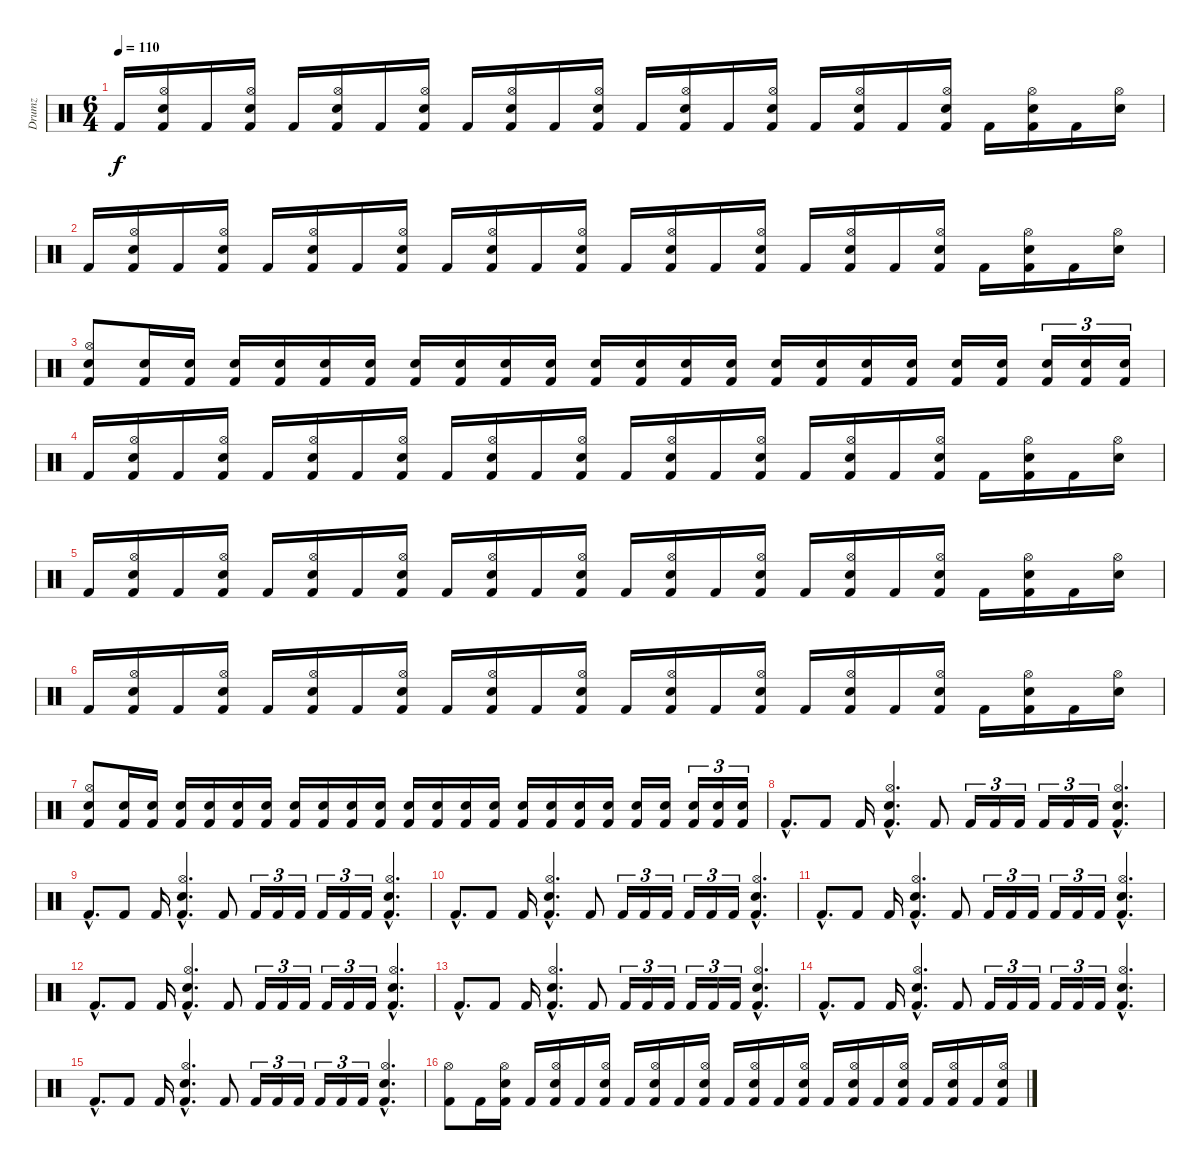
\track ("Drumz" "Drumz") {instrument percussion}
\staff {score}
\articulation defaults
\ts (6 4)
\tempo 110
\clef neutral
\ks c "Kick (hit) 2".16{dy f}
("Hi-Hat (open)" "Snare (hit) 2" "Kick (hit) 2").16 "Kick (hit) 2".16 ("Hi-Hat (open)" "Snare (hit) 2" "Kick (hit) 2").16 "Kick (hit) 2".16 ("Hi-Hat (open)" "Snare (hit) 2" "Kick (hit) 2").16 "Kick (hit) 2".16 ("Hi-Hat (open)" "Snare (hit) 2" "Kick (hit) 2").16 "Kick (hit) 2".16 ("Hi-Hat (open)" "Snare (hit) 2" "Kick (hit) 2").16 "Kick (hit) 2".16 ("Hi-Hat (open)" "Snare (hit) 2" "Kick (hit) 2").16 "Kick (hit) 2".16 ("Hi-Hat (open)" "Snare (hit) 2" "Kick (hit) 2").16 "Kick (hit) 2".16 ("Hi-Hat (open)" "Snare (hit) 2" "Kick (hit) 2").16 "Kick (hit) 2".16 ("Hi-Hat (open)" "Snare (hit) 2" "Kick (hit) 2").16 "Kick (hit) 2".16 ("Hi-Hat (open)" "Snare (hit) 2" "Kick (hit) 2").16 "Kick (hit) 2".16 ("Hi-Hat (open)" "Snare (hit) 2" "Kick (hit) 2").16 "Kick (hit) 2".16 ("Hi-Hat (open)" "Snare (hit) 2").16 |
"Kick (hit) 2".16 ("Hi-Hat (open)" "Snare (hit) 2" "Kick (hit) 2").16 "Kick (hit) 2".16 ("Hi-Hat (open)" "Snare (hit) 2" "Kick (hit) 2").16 "Kick (hit) 2".16 ("Hi-Hat (open)" "Snare (hit) 2" "Kick (hit) 2").16 "Kick (hit) 2".16 ("Hi-Hat (open)" "Snare (hit) 2" "Kick (hit) 2").16 "Kick (hit) 2".16 ("Hi-Hat (open)" "Snare (hit) 2" "Kick (hit) 2").16 "Kick (hit) 2".16 ("Hi-Hat (open)" "Snare (hit) 2" "Kick (hit) 2").16 "Kick (hit) 2".16 ("Hi-Hat (open)" "Snare (hit) 2" "Kick (hit) 2").16 "Kick (hit) 2".16 ("Hi-Hat (open)" "Snare (hit) 2" "Kick (hit) 2").16 "Kick (hit) 2".16 ("Hi-Hat (open)" "Snare (hit) 2" "Kick (hit) 2").16 "Kick (hit) 2".16 ("Hi-Hat (open)" "Snare (hit) 2" "Kick (hit) 2").16 "Kick (hit) 2".16 ("Hi-Hat (open)" "Snare (hit) 2" "Kick (hit) 2").16 "Kick (hit) 2".16 ("Hi-Hat (open)" "Snare (hit) 2").16 |
("Hi-Hat (open)" "Snare (hit) 2" "Kick (hit) 2").8 ("Snare (hit) 2" "Kick (hit) 2").16 ("Snare (hit) 2" "Kick (hit) 2").16 ("Snare (hit) 2" "Kick (hit) 2").16 ("Snare (hit) 2" "Kick (hit) 2").16 ("Snare (hit) 2" "Kick (hit) 2").16 ("Snare (hit) 2" "Kick (hit) 2").16 ("Snare (hit) 2" "Kick (hit) 2").16 ("Snare (hit) 2" "Kick (hit) 2").16 ("Snare (hit) 2" "Kick (hit) 2").16 ("Snare (hit) 2" "Kick (hit) 2").16 ("Snare (hit) 2" "Kick (hit) 2").16 ("Snare (hit) 2" "Kick (hit) 2").16 ("Snare (hit) 2" "Kick (hit) 2").16 ("Snare (hit) 2" "Kick (hit) 2").16 ("Snare (hit) 2" "Kick (hit) 2").16 ("Snare (hit) 2" "Kick (hit) 2").16 ("Snare (hit) 2" "Kick (hit) 2").16 ("Snare (hit) 2" "Kick (hit) 2").16 ("Snare (hit) 2" "Kick (hit) 2").16 ("Snare (hit) 2" "Kick (hit) 2").16 ("Snare (hit) 2" "Kick (hit) 2").16{tu (3 2)} ("Snare (hit) 2" "Kick (hit) 2").16{tu (3 2)} ("Snare (hit) 2" "Kick (hit) 2").16{tu (3 2)} |
"Kick (hit) 2".16 ("Hi-Hat (open)" "Snare (hit) 2" "Kick (hit) 2").16 "Kick (hit) 2".16 ("Hi-Hat (open)" "Snare (hit) 2" "Kick (hit) 2").16 "Kick (hit) 2".16 ("Hi-Hat (open)" "Snare (hit) 2" "Kick (hit) 2").16 "Kick (hit) 2".16 ("Hi-Hat (open)" "Snare (hit) 2" "Kick (hit) 2").16 "Kick (hit) 2".16 ("Hi-Hat (open)" "Snare (hit) 2" "Kick (hit) 2").16 "Kick (hit) 2".16 ("Hi-Hat (open)" "Snare (hit) 2" "Kick (hit) 2").16 "Kick (hit) 2".16 ("Hi-Hat (open)" "Snare (hit) 2" "Kick (hit) 2").16 "Kick (hit) 2".16 ("Hi-Hat (open)" "Snare (hit) 2" "Kick (hit) 2").16 "Kick (hit) 2".16 ("Hi-Hat (open)" "Snare (hit) 2" "Kick (hit) 2").16 "Kick (hit) 2".16 ("Hi-Hat (open)" "Snare (hit) 2" "Kick (hit) 2").16 "Kick (hit) 2".16 ("Hi-Hat (open)" "Snare (hit) 2" "Kick (hit) 2").16 "Kick (hit) 2".16 ("Hi-Hat (open)" "Snare (hit) 2").16 |
"Kick (hit) 2".16 ("Hi-Hat (open)" "Snare (hit) 2" "Kick (hit) 2").16 "Kick (hit) 2".16 ("Hi-Hat (open)" "Snare (hit) 2" "Kick (hit) 2").16 "Kick (hit) 2".16 ("Hi-Hat (open)" "Snare (hit) 2" "Kick (hit) 2").16 "Kick (hit) 2".16 ("Hi-Hat (open)" "Snare (hit) 2" "Kick (hit) 2").16 "Kick (hit) 2".16 ("Hi-Hat (open)" "Snare (hit) 2" "Kick (hit) 2").16 "Kick (hit) 2".16 ("Hi-Hat (open)" "Snare (hit) 2" "Kick (hit) 2").16 "Kick (hit) 2".16 ("Hi-Hat (open)" "Snare (hit) 2" "Kick (hit) 2").16 "Kick (hit) 2".16 ("Hi-Hat (open)" "Snare (hit) 2" "Kick (hit) 2").16 "Kick (hit) 2".16 ("Hi-Hat (open)" "Snare (hit) 2" "Kick (hit) 2").16 "Kick (hit) 2".16 ("Hi-Hat (open)" "Snare (hit) 2" "Kick (hit) 2").16 "Kick (hit) 2".16 ("Hi-Hat (open)" "Snare (hit) 2" "Kick (hit) 2").16 "Kick (hit) 2".16 ("Hi-Hat (open)" "Snare (hit) 2").16 |
"Kick (hit) 2".16 ("Hi-Hat (open)" "Snare (hit) 2" "Kick (hit) 2").16 "Kick (hit) 2".16 ("Hi-Hat (open)" "Snare (hit) 2" "Kick (hit) 2").16 "Kick (hit) 2".16 ("Hi-Hat (open)" "Snare (hit) 2" "Kick (hit) 2").16 "Kick (hit) 2".16 ("Hi-Hat (open)" "Snare (hit) 2" "Kick (hit) 2").16 "Kick (hit) 2".16 ("Hi-Hat (open)" "Snare (hit) 2" "Kick (hit) 2").16 "Kick (hit) 2".16 ("Hi-Hat (open)" "Snare (hit) 2" "Kick (hit) 2").16 "Kick (hit) 2".16 ("Hi-Hat (open)" "Snare (hit) 2" "Kick (hit) 2").16 "Kick (hit) 2".16 ("Hi-Hat (open)" "Snare (hit) 2" "Kick (hit) 2").16 "Kick (hit) 2".16 ("Hi-Hat (open)" "Snare (hit) 2" "Kick (hit) 2").16 "Kick (hit) 2".16 ("Hi-Hat (open)" "Snare (hit) 2" "Kick (hit) 2").16 "Kick (hit) 2".16 ("Hi-Hat (open)" "Snare (hit) 2" "Kick (hit) 2").16 "Kick (hit) 2".16 ("Hi-Hat (open)" "Snare (hit) 2").16 |
("Hi-Hat (open)" "Snare (hit) 2" "Kick (hit) 2").8 ("Snare (hit) 2" "Kick (hit) 2").16 ("Snare (hit) 2" "Kick (hit) 2").16 ("Snare (hit) 2" "Kick (hit) 2").16 ("Snare (hit) 2" "Kick (hit) 2").16 ("Snare (hit) 2" "Kick (hit) 2").16 ("Snare (hit) 2" "Kick (hit) 2").16 ("Snare (hit) 2" "Kick (hit) 2").16 ("Snare (hit) 2" "Kick (hit) 2").16 ("Snare (hit) 2" "Kick (hit) 2").16 ("Snare (hit) 2" "Kick (hit) 2").16 ("Snare (hit) 2" "Kick (hit) 2").16 ("Snare (hit) 2" "Kick (hit) 2").16 ("Snare (hit) 2" "Kick (hit) 2").16 ("Snare (hit) 2" "Kick (hit) 2").16 ("Snare (hit) 2" "Kick (hit) 2").16 ("Snare (hit) 2" "Kick (hit) 2").16 ("Snare (hit) 2" "Kick (hit) 2").16 ("Snare (hit) 2" "Kick (hit) 2").16 ("Snare (hit) 2" "Kick (hit) 2").16 ("Snare (hit) 2" "Kick (hit) 2").16 ("Snare (hit) 2" "Kick (hit) 2").16{tu (3 2)} ("Snare (hit) 2" "Kick (hit) 2").16{tu (3 2)} ("Snare (hit) 2" "Kick (hit) 2").16{tu (3 2)} |
"Kick (hit) 2"{hac}.8{d} "Kick (hit) 2".8 "Kick (hit) 2".16 ("Hi-Hat (open)"{hac} "Snare (hit) 2"{hac} "Kick (hit) 2"{hac}).4{d} "Kick (hit) 2".8 "Kick (hit) 2".16{tu (3 2)} "Kick (hit) 2".16{tu (3 2)} "Kick (hit) 2".16{tu (3 2)} "Kick (hit) 2".16{tu (3 2)} "Kick (hit) 2".16{tu (3 2)} "Kick (hit) 2".16{tu (3 2)} ("Hi-Hat (open)"{hac} "Snare (hit) 2"{hac} "Kick (hit) 2"{hac}).4{d} |
"Kick (hit) 2"{hac}.8{d} "Kick (hit) 2".8 "Kick (hit) 2".16 ("Hi-Hat (open)"{hac} "Snare (hit) 2"{hac} "Kick (hit) 2"{hac}).4{d} "Kick (hit) 2".8 "Kick (hit) 2".16{tu (3 2)} "Kick (hit) 2".16{tu (3 2)} "Kick (hit) 2".16{tu (3 2)} "Kick (hit) 2".16{tu (3 2)} "Kick (hit) 2".16{tu (3 2)} "Kick (hit) 2".16{tu (3 2)} ("Hi-Hat (open)"{hac} "Snare (hit) 2"{hac} "Kick (hit) 2"{hac}).4{d} |
"Kick (hit) 2"{hac}.8{d} "Kick (hit) 2".8 "Kick (hit) 2".16 ("Hi-Hat (open)"{hac} "Snare (hit) 2"{hac} "Kick (hit) 2"{hac}).4{d} "Kick (hit) 2".8 "Kick (hit) 2".16{tu (3 2)} "Kick (hit) 2".16{tu (3 2)} "Kick (hit) 2".16{tu (3 2)} "Kick (hit) 2".16{tu (3 2)} "Kick (hit) 2".16{tu (3 2)} "Kick (hit) 2".16{tu (3 2)} ("Hi-Hat (open)"{hac} "Snare (hit) 2"{hac} "Kick (hit) 2"{hac}).4{d} |
"Kick (hit) 2"{hac}.8{d} "Kick (hit) 2".8 "Kick (hit) 2".16 ("Hi-Hat (open)"{hac} "Snare (hit) 2"{hac} "Kick (hit) 2"{hac}).4{d} "Kick (hit) 2".8 "Kick (hit) 2".16{tu (3 2)} "Kick (hit) 2".16{tu (3 2)} "Kick (hit) 2".16{tu (3 2)} "Kick (hit) 2".16{tu (3 2)} "Kick (hit) 2".16{tu (3 2)} "Kick (hit) 2".16{tu (3 2)} ("Hi-Hat (open)"{hac} "Snare (hit) 2"{hac} "Kick (hit) 2"{hac}).4{d} |
"Kick (hit) 2"{hac}.8{d} "Kick (hit) 2".8 "Kick (hit) 2".16 ("Hi-Hat (open)"{hac} "Snare (hit) 2"{hac} "Kick (hit) 2"{hac}).4{d} "Kick (hit) 2".8 "Kick (hit) 2".16{tu (3 2)} "Kick (hit) 2".16{tu (3 2)} "Kick (hit) 2".16{tu (3 2)} "Kick (hit) 2".16{tu (3 2)} "Kick (hit) 2".16{tu (3 2)} "Kick (hit) 2".16{tu (3 2)} ("Hi-Hat (open)"{hac} "Snare (hit) 2"{hac} "Kick (hit) 2"{hac}).4{d} |
"Kick (hit) 2"{hac}.8{d} "Kick (hit) 2".8 "Kick (hit) 2".16 ("Hi-Hat (open)"{hac} "Snare (hit) 2"{hac} "Kick (hit) 2"{hac}).4{d} "Kick (hit) 2".8 "Kick (hit) 2".16{tu (3 2)} "Kick (hit) 2".16{tu (3 2)} "Kick (hit) 2".16{tu (3 2)} "Kick (hit) 2".16{tu (3 2)} "Kick (hit) 2".16{tu (3 2)} "Kick (hit) 2".16{tu (3 2)} ("Hi-Hat (open)"{hac} "Snare (hit) 2"{hac} "Kick (hit) 2"{hac}).4{d} |
"Kick (hit) 2"{hac}.8{d} "Kick (hit) 2".8 "Kick (hit) 2".16 ("Hi-Hat (open)"{hac} "Snare (hit) 2"{hac} "Kick (hit) 2"{hac}).4{d} "Kick (hit) 2".8 "Kick (hit) 2".16{tu (3 2)} "Kick (hit) 2".16{tu (3 2)} "Kick (hit) 2".16{tu (3 2)} "Kick (hit) 2".16{tu (3 2)} "Kick (hit) 2".16{tu (3 2)} "Kick (hit) 2".16{tu (3 2)} ("Hi-Hat (open)"{hac} "Snare (hit) 2"{hac} "Kick (hit) 2"{hac}).4{d} |
"Kick (hit) 2"{hac}.8{d} "Kick (hit) 2".8 "Kick (hit) 2".16 ("Hi-Hat (open)"{hac} "Snare (hit) 2"{hac} "Kick (hit) 2"{hac}).4{d} "Kick (hit) 2".8 "Kick (hit) 2".16{tu (3 2)} "Kick (hit) 2".16{tu (3 2)} "Kick (hit) 2".16{tu (3 2)} "Kick (hit) 2".16{tu (3 2)} "Kick (hit) 2".16{tu (3 2)} "Kick (hit) 2".16{tu (3 2)} ("Hi-Hat (open)"{hac} "Snare (hit) 2"{hac} "Kick (hit) 2"{hac}).4{d} |
("Hi-Hat (open)" "Kick (hit) 2").8 "Kick (hit) 2".16 ("Hi-Hat (open)" "Snare (hit) 2" "Kick (hit) 2").16 "Kick (hit) 2".16 ("Hi-Hat (open)" "Snare (hit) 2" "Kick (hit) 2").16 "Kick (hit) 2".16 ("Hi-Hat (open)" "Snare (hit) 2" "Kick (hit) 2").16 "Kick (hit) 2".16 ("Hi-Hat (open)" "Snare (hit) 2" "Kick (hit) 2").16 "Kick (hit) 2".16 ("Hi-Hat (open)" "Snare (hit) 2" "Kick (hit) 2").16 "Kick (hit) 2".16 ("Hi-Hat (open)" "Snare (hit) 2" "Kick (hit) 2").16 "Kick (hit) 2".16 ("Hi-Hat (open)" "Snare (hit) 2" "Kick (hit) 2").16 "Kick (hit) 2".16 ("Hi-Hat (open)" "Snare (hit) 2" "Kick (hit) 2").16 "Kick (hit) 2".16 ("Hi-Hat (open)" "Snare (hit) 2" "Kick (hit) 2").16 "Kick (hit) 2".16 ("Hi-Hat (open)" "Snare (hit) 2" "Kick (hit) 2").16 "Kick (hit) 2".16 ("Hi-Hat (open)" "Snare (hit) 2" "Kick (hit) 2").16
